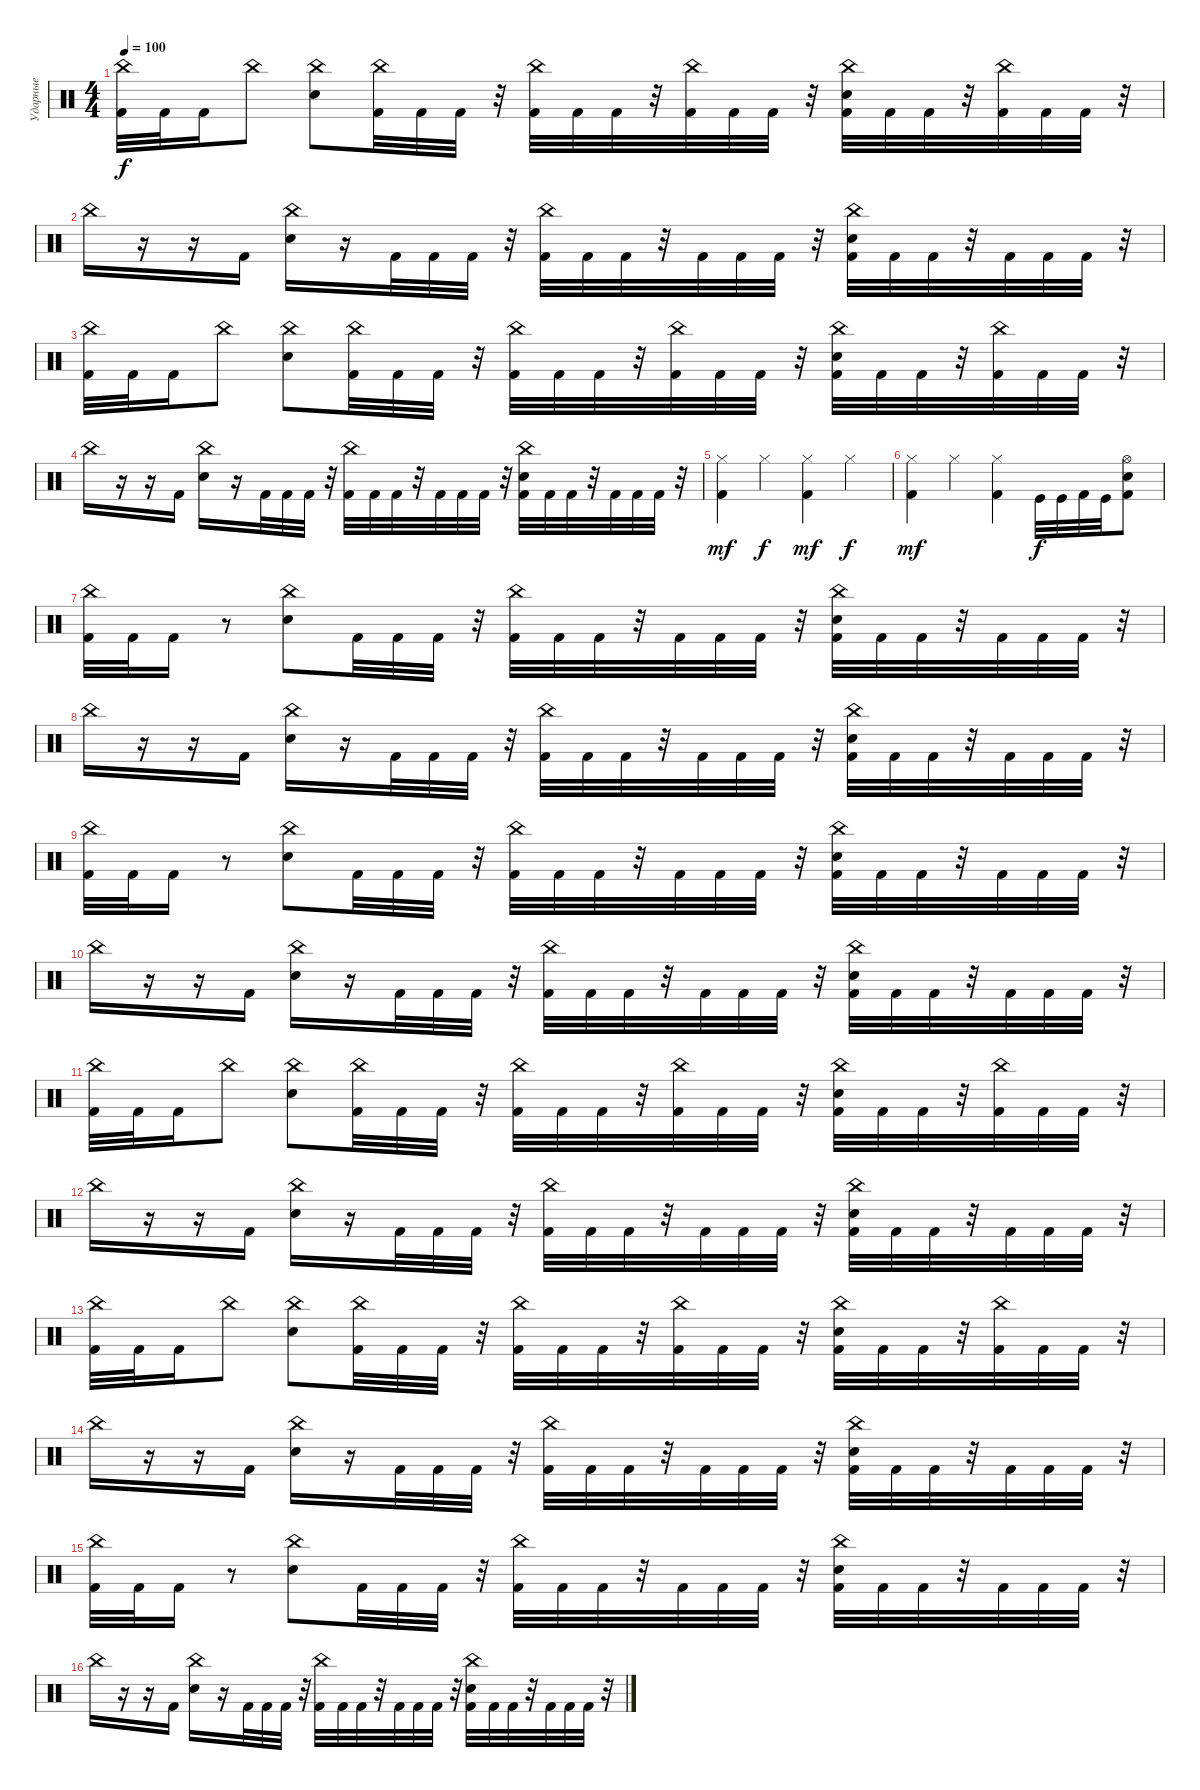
\track ("Ударные" "Ударные") {instrument percussion}
\staff {score}
\articulation defaults
\ts (4 4)
\tempo 100
\clef neutral
\ks c
("China (hit)" "Kick (hit) 2").32{dy f} "Kick (hit) 2".32 "Kick (hit) 2".16 "China (hit)".8 ("China (hit)" "Electric Snare (hit)").8 ("China (hit)" "Kick (hit) 2").32 "Kick (hit) 2".32 "Kick (hit) 2".32 r.32 ("China (hit)" "Kick (hit) 2").32 "Kick (hit) 2".32 "Kick (hit) 2".32 r.32 ("China (hit)" "Kick (hit) 2").32 "Kick (hit) 2".32 "Kick (hit) 2".32 r.32 ("China (hit)" "Electric Snare (hit)" "Kick (hit) 2").32 "Kick (hit) 2".32 "Kick (hit) 2".32 r.32 ("China (hit)" "Kick (hit) 2").32 "Kick (hit) 2".32 "Kick (hit) 2".32 r.32 |
"China (hit)".16 r.16 r.16 "Kick (hit) 2".16 ("China (hit)" "Electric Snare (hit)").16 r.16 "Kick (hit) 2".32 "Kick (hit) 2".32 "Kick (hit) 2".32 r.32 ("China (hit)" "Kick (hit) 2").32 "Kick (hit) 2".32 "Kick (hit) 2".32 r.32 "Kick (hit) 2".32 "Kick (hit) 2".32 "Kick (hit) 2".32 r.32 ("China (hit)" "Electric Snare (hit)" "Kick (hit) 2").32 "Kick (hit) 2".32 "Kick (hit) 2".32 r.32 "Kick (hit) 2".32 "Kick (hit) 2".32 "Kick (hit) 2".32 r.32 |
("China (hit)" "Kick (hit) 2").32 "Kick (hit) 2".32 "Kick (hit) 2".16 "China (hit)".8 ("China (hit)" "Electric Snare (hit)").8 ("China (hit)" "Kick (hit) 2").32 "Kick (hit) 2".32 "Kick (hit) 2".32 r.32 ("China (hit)" "Kick (hit) 2").32 "Kick (hit) 2".32 "Kick (hit) 2".32 r.32 ("China (hit)" "Kick (hit) 2").32 "Kick (hit) 2".32 "Kick (hit) 2".32 r.32 ("China (hit)" "Electric Snare (hit)" "Kick (hit) 2").32 "Kick (hit) 2".32 "Kick (hit) 2".32 r.32 ("China (hit)" "Kick (hit) 2").32 "Kick (hit) 2".32 "Kick (hit) 2".32 r.32 |
"China (hit)".16 r.16 r.16 "Kick (hit) 2".16 ("China (hit)" "Electric Snare (hit)").16 r.16 "Kick (hit) 2".32 "Kick (hit) 2".32 "Kick (hit) 2".32 r.32 ("China (hit)" "Kick (hit) 2").32 "Kick (hit) 2".32 "Kick (hit) 2".32 r.32 "Kick (hit) 2".32 "Kick (hit) 2".32 "Kick (hit) 2".32 r.32 ("China (hit)" "Electric Snare (hit)" "Kick (hit) 2").32 "Kick (hit) 2".32 "Kick (hit) 2".32 r.32 "Kick (hit) 2".32 "Kick (hit) 2".32 "Kick (hit) 2".32 r.32 |
\ks aminor
("Hi-Hat (closed)" "Kick (hit) 2").4{dy mf} "Hi-Hat (closed)".4{dy f} ("Hi-Hat (closed)" "Kick (hit) 2").4{dy mf} "Hi-Hat (closed)".4{dy f} |
\ks c
("Hi-Hat (closed)" "Kick (hit) 2").4{dy mf} "Hi-Hat (closed)".4 ("Hi-Hat (closed)" "Kick (hit) 2").4 "Kick (hit)".32{dy f} "Kick (hit)".32 "Kick (hit) 2".32 "Kick (hit)".32 ("Snare (hit) 2" "Hi-Hat (open)" "Kick (hit) 2").8 |
("China (hit)" "Kick (hit) 2").32 "Kick (hit) 2".32 "Kick (hit) 2".16 r.8 ("China (hit)" "Electric Snare (hit)").8 "Kick (hit) 2".32 "Kick (hit) 2".32 "Kick (hit) 2".32 r.32 ("China (hit)" "Kick (hit) 2").32 "Kick (hit) 2".32 "Kick (hit) 2".32 r.32 "Kick (hit) 2".32 "Kick (hit) 2".32 "Kick (hit) 2".32 r.32 ("China (hit)" "Electric Snare (hit)" "Kick (hit) 2").32 "Kick (hit) 2".32 "Kick (hit) 2".32 r.32 "Kick (hit) 2".32 "Kick (hit) 2".32 "Kick (hit) 2".32 r.32 |
"China (hit)".16 r.16 r.16 "Kick (hit) 2".16 ("China (hit)" "Electric Snare (hit)").16 r.16 "Kick (hit) 2".32 "Kick (hit) 2".32 "Kick (hit) 2".32 r.32 ("China (hit)" "Kick (hit) 2").32 "Kick (hit) 2".32 "Kick (hit) 2".32 r.32 "Kick (hit) 2".32 "Kick (hit) 2".32 "Kick (hit) 2".32 r.32 ("China (hit)" "Electric Snare (hit)" "Kick (hit) 2").32 "Kick (hit) 2".32 "Kick (hit) 2".32 r.32 "Kick (hit) 2".32 "Kick (hit) 2".32 "Kick (hit) 2".32 r.32 |
("China (hit)" "Kick (hit) 2").32 "Kick (hit) 2".32 "Kick (hit) 2".16 r.8 ("China (hit)" "Electric Snare (hit)").8 "Kick (hit) 2".32 "Kick (hit) 2".32 "Kick (hit) 2".32 r.32 ("China (hit)" "Kick (hit) 2").32 "Kick (hit) 2".32 "Kick (hit) 2".32 r.32 "Kick (hit) 2".32 "Kick (hit) 2".32 "Kick (hit) 2".32 r.32 ("China (hit)" "Electric Snare (hit)" "Kick (hit) 2").32 "Kick (hit) 2".32 "Kick (hit) 2".32 r.32 "Kick (hit) 2".32 "Kick (hit) 2".32 "Kick (hit) 2".32 r.32 |
"China (hit)".16 r.16 r.16 "Kick (hit) 2".16 ("China (hit)" "Electric Snare (hit)").16 r.16 "Kick (hit) 2".32 "Kick (hit) 2".32 "Kick (hit) 2".32 r.32 ("China (hit)" "Kick (hit) 2").32 "Kick (hit) 2".32 "Kick (hit) 2".32 r.32 "Kick (hit) 2".32 "Kick (hit) 2".32 "Kick (hit) 2".32 r.32 ("China (hit)" "Electric Snare (hit)" "Kick (hit) 2").32 "Kick (hit) 2".32 "Kick (hit) 2".32 r.32 "Kick (hit) 2".32 "Kick (hit) 2".32 "Kick (hit) 2".32 r.32 |
("China (hit)" "Kick (hit) 2").32 "Kick (hit) 2".32 "Kick (hit) 2".16 "China (hit)".8 ("China (hit)" "Electric Snare (hit)").8 ("China (hit)" "Kick (hit) 2").32 "Kick (hit) 2".32 "Kick (hit) 2".32 r.32 ("China (hit)" "Kick (hit) 2").32 "Kick (hit) 2".32 "Kick (hit) 2".32 r.32 ("China (hit)" "Kick (hit) 2").32 "Kick (hit) 2".32 "Kick (hit) 2".32 r.32 ("China (hit)" "Electric Snare (hit)" "Kick (hit) 2").32 "Kick (hit) 2".32 "Kick (hit) 2".32 r.32 ("China (hit)" "Kick (hit) 2").32 "Kick (hit) 2".32 "Kick (hit) 2".32 r.32 |
"China (hit)".16 r.16 r.16 "Kick (hit) 2".16 ("China (hit)" "Electric Snare (hit)").16 r.16 "Kick (hit) 2".32 "Kick (hit) 2".32 "Kick (hit) 2".32 r.32 ("China (hit)" "Kick (hit) 2").32 "Kick (hit) 2".32 "Kick (hit) 2".32 r.32 "Kick (hit) 2".32 "Kick (hit) 2".32 "Kick (hit) 2".32 r.32 ("China (hit)" "Electric Snare (hit)" "Kick (hit) 2").32 "Kick (hit) 2".32 "Kick (hit) 2".32 r.32 "Kick (hit) 2".32 "Kick (hit) 2".32 "Kick (hit) 2".32 r.32 |
("China (hit)" "Kick (hit) 2").32 "Kick (hit) 2".32 "Kick (hit) 2".16 "China (hit)".8 ("China (hit)" "Electric Snare (hit)").8 ("China (hit)" "Kick (hit) 2").32 "Kick (hit) 2".32 "Kick (hit) 2".32 r.32 ("China (hit)" "Kick (hit) 2").32 "Kick (hit) 2".32 "Kick (hit) 2".32 r.32 ("China (hit)" "Kick (hit) 2").32 "Kick (hit) 2".32 "Kick (hit) 2".32 r.32 ("China (hit)" "Electric Snare (hit)" "Kick (hit) 2").32 "Kick (hit) 2".32 "Kick (hit) 2".32 r.32 ("China (hit)" "Kick (hit) 2").32 "Kick (hit) 2".32 "Kick (hit) 2".32 r.32 |
"China (hit)".16 r.16 r.16 "Kick (hit) 2".16 ("China (hit)" "Electric Snare (hit)").16 r.16 "Kick (hit) 2".32 "Kick (hit) 2".32 "Kick (hit) 2".32 r.32 ("China (hit)" "Kick (hit) 2").32 "Kick (hit) 2".32 "Kick (hit) 2".32 r.32 "Kick (hit) 2".32 "Kick (hit) 2".32 "Kick (hit) 2".32 r.32 ("China (hit)" "Electric Snare (hit)" "Kick (hit) 2").32 "Kick (hit) 2".32 "Kick (hit) 2".32 r.32 "Kick (hit) 2".32 "Kick (hit) 2".32 "Kick (hit) 2".32 r.32 |
("China (hit)" "Kick (hit) 2").32 "Kick (hit) 2".32 "Kick (hit) 2".16 r.8 ("China (hit)" "Electric Snare (hit)").8 "Kick (hit) 2".32 "Kick (hit) 2".32 "Kick (hit) 2".32 r.32 ("China (hit)" "Kick (hit) 2").32 "Kick (hit) 2".32 "Kick (hit) 2".32 r.32 "Kick (hit) 2".32 "Kick (hit) 2".32 "Kick (hit) 2".32 r.32 ("China (hit)" "Electric Snare (hit)" "Kick (hit) 2").32 "Kick (hit) 2".32 "Kick (hit) 2".32 r.32 "Kick (hit) 2".32 "Kick (hit) 2".32 "Kick (hit) 2".32 r.32 |
"China (hit)".16 r.16 r.16 "Kick (hit) 2".16 ("China (hit)" "Electric Snare (hit)").16 r.16 "Kick (hit) 2".32 "Kick (hit) 2".32 "Kick (hit) 2".32 r.32 ("China (hit)" "Kick (hit) 2").32 "Kick (hit) 2".32 "Kick (hit) 2".32 r.32 "Kick (hit) 2".32 "Kick (hit) 2".32 "Kick (hit) 2".32 r.32 ("China (hit)" "Electric Snare (hit)" "Kick (hit) 2").32 "Kick (hit) 2".32 "Kick (hit) 2".32 r.32 "Kick (hit) 2".32 "Kick (hit) 2".32 "Kick (hit) 2".32 r.32
